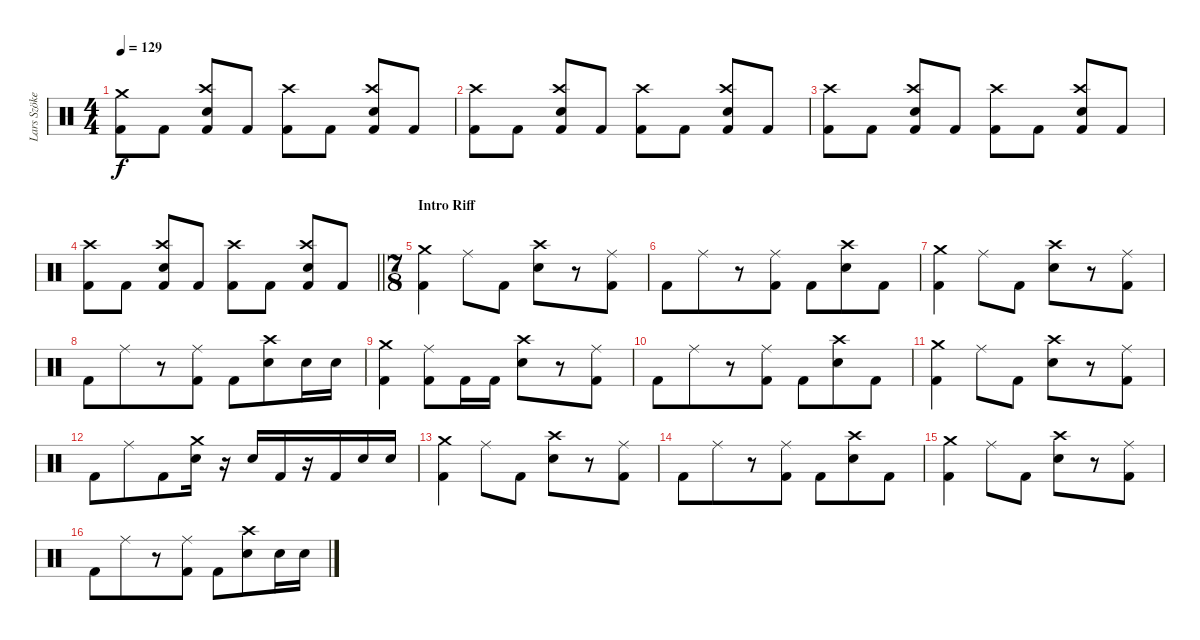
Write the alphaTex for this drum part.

\track ("Lars Szöke" "Lars Szöke") {instrument percussion}
\staff {score}
\articulation defaults
\ts (4 4)
\tempo 129
\clef neutral
\ks c
("Crash medium (hit)" "Kick (hit) 2").8{dy f} "Kick (hit) 2".8 ("Crash high (hit)" "Snare (hit) 2" "Kick (hit) 2").8 "Kick (hit) 2".8 ("Crash high (hit)" "Kick (hit) 2").8 "Kick (hit) 2".8 ("Crash high (hit)" "Snare (hit) 2" "Kick (hit) 2").8 "Kick (hit) 2".8 |
("Crash high (hit)" "Kick (hit) 2").8 "Kick (hit) 2".8 ("Crash high (hit)" "Snare (hit) 2" "Kick (hit) 2").8 "Kick (hit) 2".8 ("Crash high (hit)" "Kick (hit) 2").8 "Kick (hit) 2".8 ("Crash high (hit)" "Snare (hit) 2" "Kick (hit) 2").8 "Kick (hit) 2".8 |
("Crash high (hit)" "Kick (hit) 2").8 "Kick (hit) 2".8 ("Crash high (hit)" "Snare (hit) 2" "Kick (hit) 2").8 "Kick (hit) 2".8 ("Crash high (hit)" "Kick (hit) 2").8 "Kick (hit) 2".8 ("Crash high (hit)" "Snare (hit) 2" "Kick (hit) 2").8 "Kick (hit) 2".8 |
\barLineRight lightlight
("Crash high (hit)" "Kick (hit) 2").8 "Kick (hit) 2".8 ("Crash high (hit)" "Snare (hit) 2" "Kick (hit) 2").8 "Kick (hit) 2".8 ("Crash high (hit)" "Kick (hit) 2").8 "Kick (hit) 2".8 ("Crash high (hit)" "Snare (hit) 2" "Kick (hit) 2").8 "Kick (hit) 2".8 |
\ts (7 8)
\section ("" "Intro Riff")
("Crash medium (hit)" "Kick (hit) 2").4 "Ride (middle)".8 "Kick (hit) 2".8 ("Crash high (hit)" "Snare (hit) 2").8 r.8 ("Ride (middle)" "Kick (hit) 2").8 |
"Kick (hit) 2".8 "Ride (middle)".8 r.8 ("Ride (middle)" "Kick (hit) 2").8 "Kick (hit) 2".8 ("Crash high (hit)" "Snare (hit) 2").8 "Kick (hit) 2".8 |
("Crash medium (hit)" "Kick (hit) 2").4 "Ride (middle)".8 "Kick (hit) 2".8 ("Crash high (hit)" "Snare (hit) 2").8 r.8 ("Ride (middle)" "Kick (hit) 2").8 |
"Kick (hit) 2".8 "Ride (middle)".8 r.8 ("Ride (middle)" "Kick (hit) 2").8 "Kick (hit) 2".8 ("Crash high (hit)" "Snare (hit) 2").8 "Snare (hit) 2".16 "Snare (hit) 2".16 |
("Crash medium (hit)" "Kick (hit) 2").4 ("Ride (middle)" "Kick (hit) 2").8 "Kick (hit) 2".16 "Kick (hit) 2".16 ("Crash high (hit)" "Snare (hit) 2").8 r.8 ("Ride (middle)" "Kick (hit) 2").8 |
"Kick (hit) 2".8 "Ride (middle)".8 r.8 ("Ride (middle)" "Kick (hit) 2").8 "Kick (hit) 2".8 ("Crash high (hit)" "Snare (hit) 2").8 "Kick (hit) 2".8 |
("Crash medium (hit)" "Kick (hit) 2").4 "Ride (middle)".8 "Kick (hit) 2".8 ("Crash high (hit)" "Snare (hit) 2").8 r.8 ("Ride (middle)" "Kick (hit) 2").8 |
"Kick (hit) 2".8 "Ride (middle)".8 "Kick (hit) 2".8 ("Crash medium (hit)" "Snare (hit) 2").16 r.16 "Snare (hit) 2".16 "Kick (hit) 2".16 r.16 "Kick (hit) 2".16 "Snare (hit) 2".16 "Snare (hit) 2".16 |
("Crash medium (hit)" "Kick (hit) 2").4 "Ride (middle)".8 "Kick (hit) 2".8 ("Crash high (hit)" "Snare (hit) 2").8 r.8 ("Ride (middle)" "Kick (hit) 2").8 |
"Kick (hit) 2".8 "Ride (middle)".8 r.8 ("Ride (middle)" "Kick (hit) 2").8 "Kick (hit) 2".8 ("Crash high (hit)" "Snare (hit) 2").8 "Kick (hit) 2".8 |
("Crash medium (hit)" "Kick (hit) 2").4 "Ride (middle)".8 "Kick (hit) 2".8 ("Crash high (hit)" "Snare (hit) 2").8 r.8 ("Ride (middle)" "Kick (hit) 2").8 |
"Kick (hit) 2".8 "Ride (middle)".8 r.8 ("Ride (middle)" "Kick (hit) 2").8 "Kick (hit) 2".8 ("Crash high (hit)" "Snare (hit) 2").8 "Snare (hit) 2".16 "Snare (hit) 2".16
